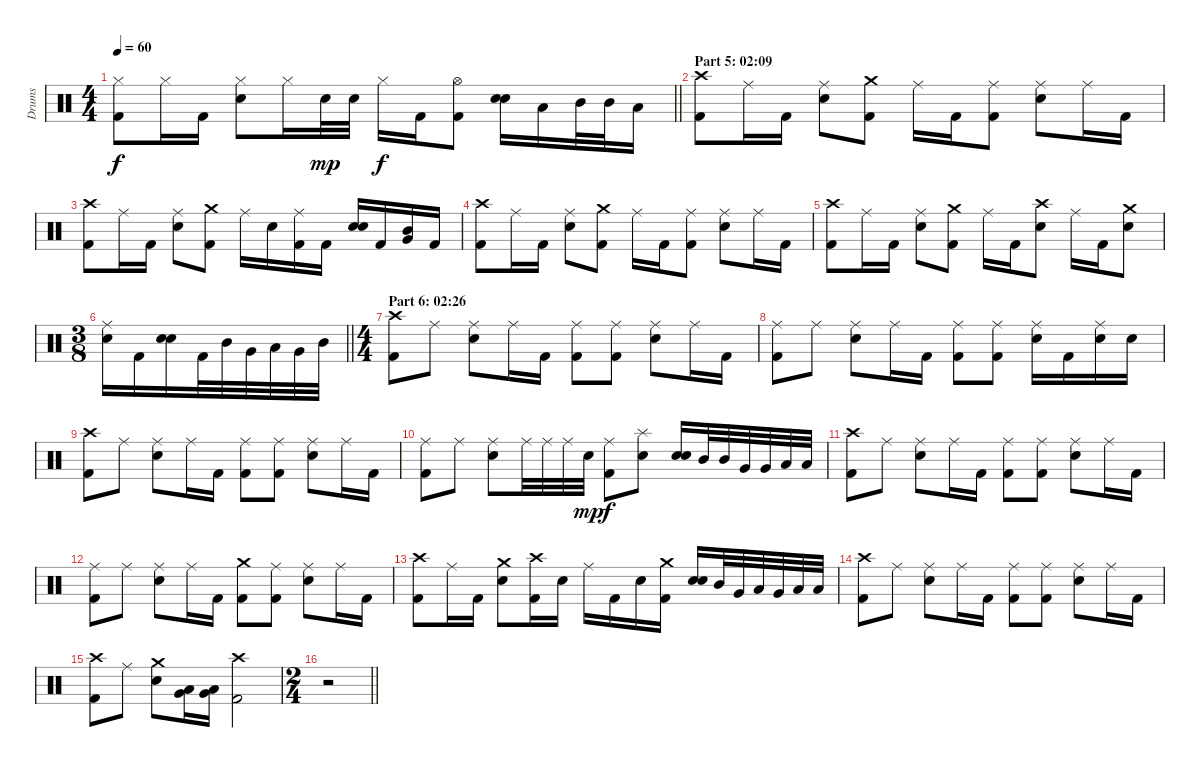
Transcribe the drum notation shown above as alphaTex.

\track ("Drums" "Drums") {instrument percussion}
\staff {score}
\articulation defaults
\ts (4 4)
\tempo 60
\clef neutral
\barLineRight lightlight
\ks c
("Hi-Hat (closed)" "Kick (hit) 2").8{dy f} "Hi-Hat (closed)".16 "Kick (hit) 2".16 ("Hi-Hat (closed)" "Electric Snare (hit)").8 "Hi-Hat (closed)".16 "Electric Snare (hit)".32{dy mp} "Electric Snare (hit)".32 "Hi-Hat (closed)".16{dy f} "Kick (hit) 2".16 ("Hi-Hat (open)" "Kick (hit) 2").8 ("Electric Snare (hit)" "Electric Snare (hit)").16{bu 60} "Low Tom (hit)".16 "Mid Tom (hit)".32 "Mid Tom (hit)".32 "Low Tom (hit)".16 |
\section ("" "Part 5: 02:09")
("Crash high (hit)" "Kick (hit) 2").8 "Ride (middle)".16 "Kick (hit) 2".16 ("Ride (middle)" "Electric Snare (hit)").8 ("Crash medium (hit)" "Kick (hit) 2").8 "Ride (middle)".16 "Kick (hit) 2".16 ("Ride (middle)" "Kick (hit) 2").8 ("Ride (middle)" "Electric Snare (hit)").8 "Ride (middle)".16 "Kick (hit) 2".16 |
("Crash high (hit)" "Kick (hit) 2").8 "Ride (middle)".16 "Kick (hit) 2".16 ("Ride (middle)" "Electric Snare (hit)").8 ("Crash medium (hit)" "Kick (hit) 2").8 "Ride (middle)".16 "Electric Snare (hit)".16 ("Ride (middle)" "Kick (hit) 2").16 "Kick (hit) 2".16 ("Electric Snare (hit)" "Electric Snare (hit)").16{bu 60} "Kick (hit) 2".16 ("Mid Tom (hit)" "Very Low Tom (hit)").16{bd 60} "Kick (hit) 2".16 |
("Crash high (hit)" "Kick (hit) 2").8 "Ride (middle)".16 "Kick (hit) 2".16 ("Ride (middle)" "Electric Snare (hit)").8 ("Crash medium (hit)" "Kick (hit) 2").8 "Ride (middle)".16 "Kick (hit) 2".16 ("Ride (middle)" "Kick (hit) 2").8 ("Ride (middle)" "Electric Snare (hit)").8 "Ride (middle)".16 "Kick (hit) 2".16 |
("Crash high (hit)" "Kick (hit) 2").8 "Ride (middle)".16 "Kick (hit) 2".16 ("Ride (middle)" "Electric Snare (hit)").8 ("Crash medium (hit)" "Kick (hit) 2").8 "Ride (middle)".16 "Kick (hit) 2".16 ("Crash high (hit)" "Electric Snare (hit)").8 "Ride (middle)".16 "Kick (hit) 2".16 ("Crash medium (hit)" "Electric Snare (hit)").8 |
\ts (3 8)
\barLineRight lightlight
("Ride (middle)" "Electric Snare (hit)").16 "Kick (hit) 2".16 ("Electric Snare (hit)" "Electric Snare (hit)").16{bu 60} "Kick (hit) 2".32 "Mid Tom (hit)".32 "Very Low Tom (hit)".32 "Low Tom (hit)".32 "Very Low Tom (hit)".32 "Mid Tom (hit)".32 |
\ts (4 4)
\section ("" "Part 6: 02:26")
("Crash high (hit)" "Kick (hit) 2").8 "Ride (middle)".8 ("Ride (middle)" "Electric Snare (hit)").8 "Ride (middle)".16 "Kick (hit) 2".16 ("Ride (middle)" "Kick (hit) 2").8 ("Ride (middle)" "Kick (hit) 2").8 ("Ride (middle)" "Electric Snare (hit)").8 "Ride (middle)".16 "Kick (hit) 2".16 |
("Ride (middle)" "Kick (hit) 2").8 "Ride (middle)".8 ("Ride (middle)" "Electric Snare (hit)").8 "Ride (middle)".16 "Kick (hit) 2".16 ("Ride (middle)" "Kick (hit) 2").8 ("Ride (middle)" "Kick (hit) 2").8 ("Ride (middle)" "Electric Snare (hit)").16 "Kick (hit) 2".16 ("Ride (middle)" "Electric Snare (hit)").16 "Electric Snare (hit)".16 |
("Crash high (hit)" "Kick (hit) 2").8 "Ride (middle)".8 ("Ride (middle)" "Electric Snare (hit)").8 "Ride (middle)".16 "Kick (hit) 2".16 ("Ride (middle)" "Kick (hit) 2").8 ("Ride (middle)" "Kick (hit) 2").8 ("Ride (middle)" "Electric Snare (hit)").8 "Ride (middle)".16 "Kick (hit) 2".16 |
("Ride (middle)" "Kick (hit) 2").8 "Ride (middle)".8 ("Ride (middle)" "Electric Snare (hit)").8 "Ride (middle)".32 "Ride (middle)".32 "Ride (middle)".32 "Electric Snare (hit)".32{dy mp} ("Ride (middle)" "Kick (hit) 2").8{dy f} ("Splash (hit)" "Electric Snare (hit)").8 ("Electric Snare (hit)" "Electric Snare (hit)").16{bd 60} "Mid Tom (hit)".32 "Mid Tom (hit)".32 "Very Low Tom (hit)".32 "Very Low Tom (hit)".32 "Low Tom (hit)".32 "Low Tom (hit)".32 |
("Crash high (hit)" "Kick (hit) 2").8 "Ride (middle)".8 ("Ride (middle)" "Electric Snare (hit)").8 "Ride (middle)".16 "Kick (hit) 2".16 ("Ride (middle)" "Kick (hit) 2").8 ("Ride (middle)" "Kick (hit) 2").8 ("Ride (middle)" "Electric Snare (hit)").8 "Ride (middle)".16 "Kick (hit) 2".16 |
("Ride (middle)" "Kick (hit) 2").8 "Ride (middle)".8 ("Ride (middle)" "Electric Snare (hit)").8 "Ride (middle)".16 "Kick (hit) 2".16 ("Crash medium (hit)" "Kick (hit) 2").8 ("Ride (middle)" "Kick (hit) 2").8 ("Ride (middle)" "Electric Snare (hit)").8 "Ride (middle)".16 "Kick (hit) 2".16 |
("Crash high (hit)" "Kick (hit) 2").8 "Ride (middle)".16 "Kick (hit) 2".16 ("Crash medium (hit)" "Electric Snare (hit)").8 ("Crash high (hit)" "Kick (hit) 2").16 "Electric Snare (hit)".16 "Ride (middle)".16 "Kick (hit) 2".16 "Electric Snare (hit)".16 ("Crash medium (hit)" "Kick (hit) 2").16 ("Electric Snare (hit)" "Electric Snare (hit)").16{bu 60} "Mid Tom (hit)".32 "Very Low Tom (hit)".32 "Low Tom (hit)".32 "Very Low Tom (hit)".32 "Low Tom (hit)".32 "Low Floor Tom (hit)".32 |
("Crash high (hit)" "Kick (hit) 2").8 "Ride (middle)".8 ("Ride (middle)" "Electric Snare (hit)").8 "Ride (middle)".16 "Kick (hit) 2".16 ("Ride (middle)" "Kick (hit) 2").8 ("Ride (middle)" "Kick (hit) 2").8 ("Ride (middle)" "Electric Snare (hit)").8 "Ride (middle)".16 "Kick (hit) 2".16 |
("Crash high (hit)" "Kick (hit) 2").8 "Ride (middle)".8 ("Crash medium (hit)" "Electric Snare (hit)").8 ("Low Tom (hit)" "Very Low Tom (hit)").16{bd 30} ("Low Tom (hit)" "Very Low Tom (hit)").16{bd 30} ("Crash high (hit)" "Kick (hit) 2").2 |
\ts (2 4)
\barLineRight lightlight
r.2
